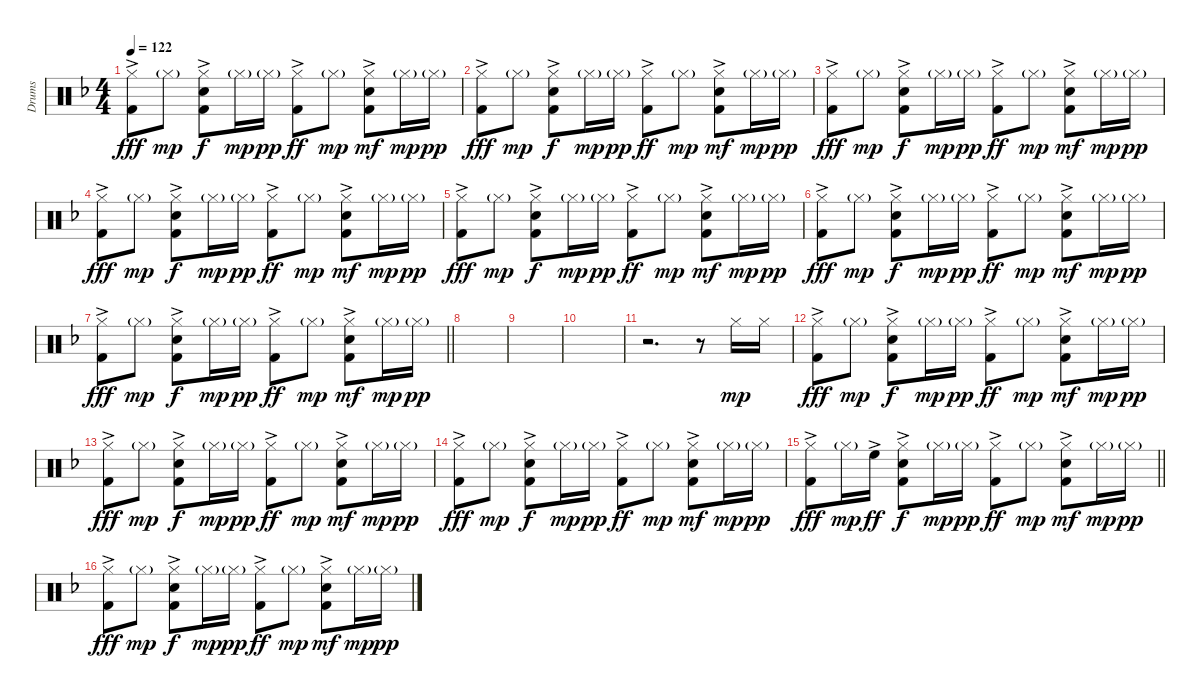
\track ("Drums" "Drums") {instrument percussion}
\staff {score}
\articulation defaults
\ts (4 4)
\tempo 122
\clef neutral
\ks f
("Kick (hit) 2"{ac} "Hi-Hat (closed)").8{dy fff} "Hi-Hat (closed)"{g}.8{dy mp} ("Kick (hit) 2" "Snare (hit) 2"{ac} "Hi-Hat (closed)").8{dy f} "Hi-Hat (closed)"{g}.16{dy mp} "Hi-Hat (closed)"{g}.16{dy pp} ("Kick (hit) 2"{ac} "Hi-Hat (closed)").8{dy ff} "Hi-Hat (closed)"{g}.8{dy mp} ("Kick (hit) 2" "Snare (hit) 2"{ac} "Hi-Hat (closed)").8{dy mf} "Hi-Hat (closed)"{g}.16{dy mp} "Hi-Hat (closed)"{g}.16{dy pp} |
("Kick (hit) 2"{ac} "Hi-Hat (closed)").8{dy fff} "Hi-Hat (closed)"{g}.8{dy mp} ("Kick (hit) 2" "Snare (hit) 2"{ac} "Hi-Hat (closed)").8{dy f} "Hi-Hat (closed)"{g}.16{dy mp} "Hi-Hat (closed)"{g}.16{dy pp} ("Kick (hit) 2"{ac} "Hi-Hat (closed)").8{dy ff} "Hi-Hat (closed)"{g}.8{dy mp} ("Kick (hit) 2" "Snare (hit) 2"{ac} "Hi-Hat (closed)").8{dy mf} "Hi-Hat (closed)"{g}.16{dy mp} "Hi-Hat (closed)"{g}.16{dy pp} |
("Kick (hit) 2"{ac} "Hi-Hat (closed)").8{dy fff} "Hi-Hat (closed)"{g}.8{dy mp} ("Kick (hit) 2" "Snare (hit) 2"{ac} "Hi-Hat (closed)").8{dy f} "Hi-Hat (closed)"{g}.16{dy mp} "Hi-Hat (closed)"{g}.16{dy pp} ("Kick (hit) 2"{ac} "Hi-Hat (closed)").8{dy ff} "Hi-Hat (closed)"{g}.8{dy mp} ("Kick (hit) 2" "Snare (hit) 2"{ac} "Hi-Hat (closed)").8{dy mf} "Hi-Hat (closed)"{g}.16{dy mp} "Hi-Hat (closed)"{g}.16{dy pp} |
("Kick (hit) 2"{ac} "Hi-Hat (closed)").8{dy fff} "Hi-Hat (closed)"{g}.8{dy mp} ("Kick (hit) 2" "Snare (hit) 2"{ac} "Hi-Hat (closed)").8{dy f} "Hi-Hat (closed)"{g}.16{dy mp} "Hi-Hat (closed)"{g}.16{dy pp} ("Kick (hit) 2"{ac} "Hi-Hat (closed)").8{dy ff} "Hi-Hat (closed)"{g}.8{dy mp} ("Kick (hit) 2" "Snare (hit) 2"{ac} "Hi-Hat (closed)").8{dy mf} "Hi-Hat (closed)"{g}.16{dy mp} "Hi-Hat (closed)"{g}.16{dy pp} |
("Kick (hit) 2"{ac} "Hi-Hat (closed)").8{dy fff} "Hi-Hat (closed)"{g}.8{dy mp} ("Kick (hit) 2" "Snare (hit) 2"{ac} "Hi-Hat (closed)").8{dy f} "Hi-Hat (closed)"{g}.16{dy mp} "Hi-Hat (closed)"{g}.16{dy pp} ("Kick (hit) 2"{ac} "Hi-Hat (closed)").8{dy ff} "Hi-Hat (closed)"{g}.8{dy mp} ("Kick (hit) 2" "Snare (hit) 2"{ac} "Hi-Hat (closed)").8{dy mf} "Hi-Hat (closed)"{g}.16{dy mp} "Hi-Hat (closed)"{g}.16{dy pp} |
("Kick (hit) 2"{ac} "Hi-Hat (closed)").8{dy fff} "Hi-Hat (closed)"{g}.8{dy mp} ("Kick (hit) 2" "Snare (hit) 2"{ac} "Hi-Hat (closed)").8{dy f} "Hi-Hat (closed)"{g}.16{dy mp} "Hi-Hat (closed)"{g}.16{dy pp} ("Kick (hit) 2"{ac} "Hi-Hat (closed)").8{dy ff} "Hi-Hat (closed)"{g}.8{dy mp} ("Kick (hit) 2" "Snare (hit) 2"{ac} "Hi-Hat (closed)").8{dy mf} "Hi-Hat (closed)"{g}.16{dy mp} "Hi-Hat (closed)"{g}.16{dy pp} |
\barLineRight lightlight
("Kick (hit) 2"{ac} "Hi-Hat (closed)").8{dy fff} "Hi-Hat (closed)"{g}.8{dy mp} ("Kick (hit) 2" "Snare (hit) 2"{ac} "Hi-Hat (closed)").8{dy f} "Hi-Hat (closed)"{g}.16{dy mp} "Hi-Hat (closed)"{g}.16{dy pp} ("Kick (hit) 2"{ac} "Hi-Hat (closed)").8{dy ff} "Hi-Hat (closed)"{g}.8{dy mp} ("Kick (hit) 2" "Snare (hit) 2"{ac} "Hi-Hat (closed)").8{dy mf} "Hi-Hat (closed)"{g}.16{dy mp} "Hi-Hat (closed)"{g}.16{dy pp} |
|
|
|
r.2{d} r.8 "Hi-Hat (closed)".16{dy mp} "Hi-Hat (closed)".16 |
("Kick (hit) 2"{ac} "Hi-Hat (closed)").8{dy fff} "Hi-Hat (closed)"{g}.8{dy mp} ("Kick (hit) 2" "Snare (hit) 2"{ac} "Hi-Hat (closed)").8{dy f} "Hi-Hat (closed)"{g}.16{dy mp} "Hi-Hat (closed)"{g}.16{dy pp} ("Kick (hit) 2"{ac} "Hi-Hat (closed)").8{dy ff} "Hi-Hat (closed)"{g}.8{dy mp} ("Kick (hit) 2" "Snare (hit) 2"{ac} "Hi-Hat (closed)").8{dy mf} "Hi-Hat (closed)"{g}.16{dy mp} "Hi-Hat (closed)"{g}.16{dy pp} |
("Kick (hit) 2"{ac} "Hi-Hat (closed)").8{dy fff} "Hi-Hat (closed)"{g}.8{dy mp} ("Kick (hit) 2" "Snare (hit) 2"{ac} "Hi-Hat (closed)").8{dy f} "Hi-Hat (closed)"{g}.16{dy mp} "Hi-Hat (closed)"{g}.16{dy pp} ("Kick (hit) 2"{ac} "Hi-Hat (closed)").8{dy ff} "Hi-Hat (closed)"{g}.8{dy mp} ("Kick (hit) 2" "Snare (hit) 2"{ac} "Hi-Hat (closed)").8{dy mf} "Hi-Hat (closed)"{g}.16{dy mp} "Hi-Hat (closed)"{g}.16{dy pp} |
("Kick (hit) 2"{ac} "Hi-Hat (closed)").8{dy fff} "Hi-Hat (closed)"{g}.8{dy mp} ("Kick (hit) 2" "Snare (hit) 2"{ac} "Hi-Hat (closed)").8{dy f} "Hi-Hat (closed)"{g}.16{dy mp} "Hi-Hat (closed)"{g}.16{dy pp} ("Kick (hit) 2"{ac} "Hi-Hat (closed)").8{dy ff} "Hi-Hat (closed)"{g}.8{dy mp} ("Kick (hit) 2" "Snare (hit) 2"{ac} "Hi-Hat (closed)").8{dy mf} "Hi-Hat (closed)"{g}.16{dy mp} "Hi-Hat (closed)"{g}.16{dy pp} |
\barLineRight lightlight
("Kick (hit) 2"{ac} "Hi-Hat (closed)").8{dy fff} "Hi-Hat (closed)"{g}.16{dy mp} "High Floor Tom (hit)"{ac}.16{dy ff} ("Kick (hit) 2" "Snare (hit) 2"{ac} "Hi-Hat (closed)").8{dy f} "Hi-Hat (closed)"{g}.16{dy mp} "Hi-Hat (closed)"{g}.16{dy pp} ("Kick (hit) 2"{ac} "Hi-Hat (closed)").8{dy ff} "Hi-Hat (closed)"{g}.8{dy mp} ("Kick (hit) 2" "Snare (hit) 2"{ac} "Hi-Hat (closed)").8{dy mf} "Hi-Hat (closed)"{g}.16{dy mp} "Hi-Hat (closed)"{g}.16{dy pp} |
("Kick (hit) 2"{ac} "Hi-Hat (closed)").8{dy fff} "Hi-Hat (closed)"{g}.8{dy mp} ("Kick (hit) 2" "Snare (hit) 2"{ac} "Hi-Hat (closed)").8{dy f} "Hi-Hat (closed)"{g}.16{dy mp} "Hi-Hat (closed)"{g}.16{dy pp} ("Kick (hit) 2"{ac} "Hi-Hat (closed)").8{dy ff} "Hi-Hat (closed)"{g}.8{dy mp} ("Kick (hit) 2" "Snare (hit) 2"{ac} "Hi-Hat (closed)").8{dy mf} "Hi-Hat (closed)"{g}.16{dy mp} "Hi-Hat (closed)"{g}.16{dy pp}
